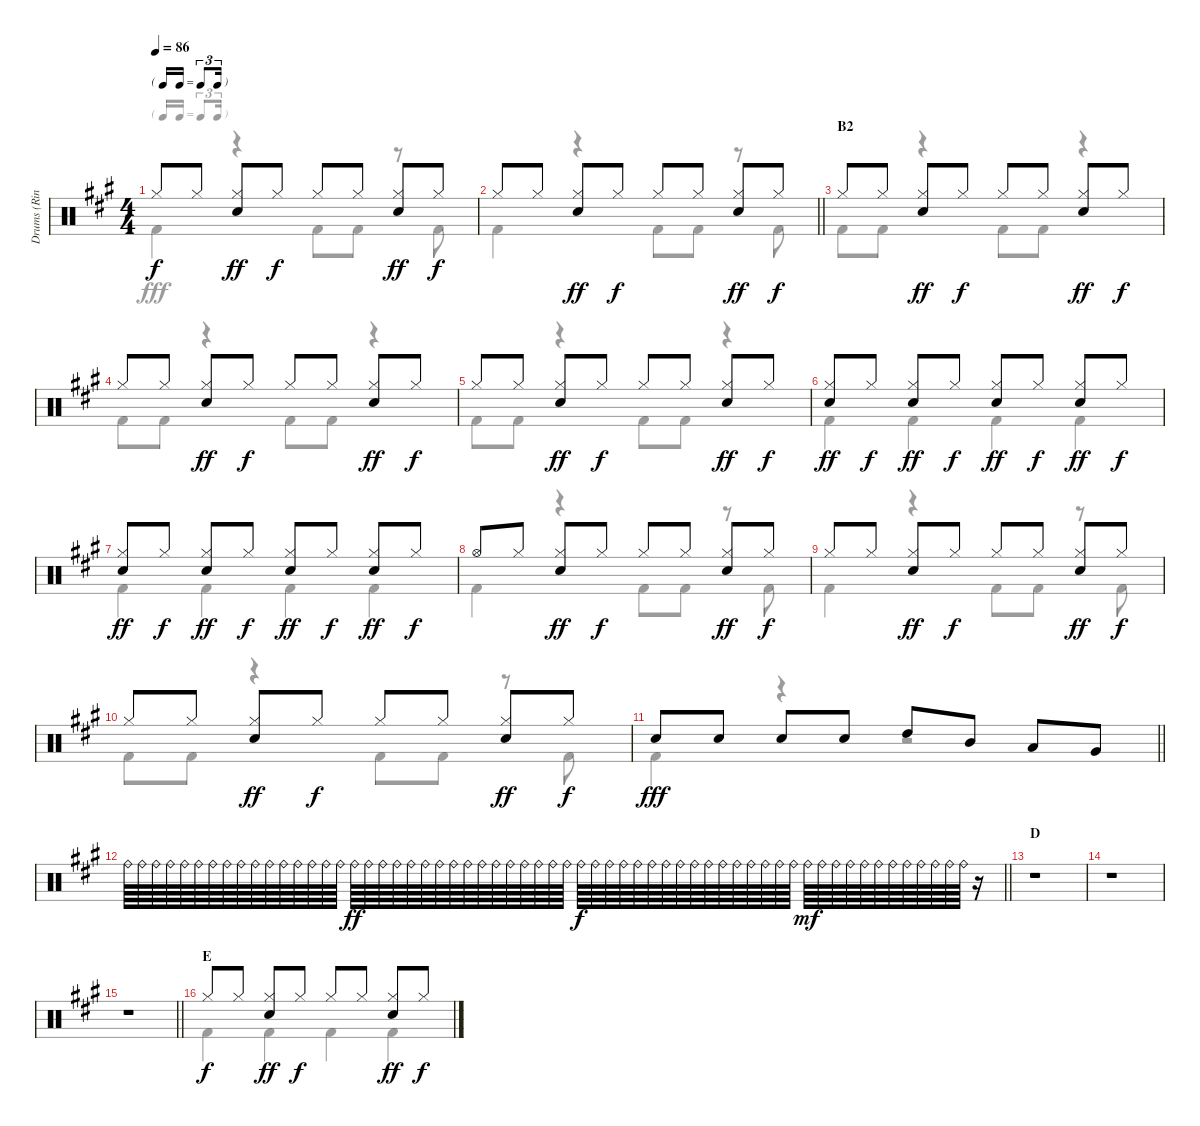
\track ("Drums (Ringo Starr)" "Drums (Rin") {instrument percussion}
\staff {score}
\articulation defaults
\voice
\ts (4 4)
\tf triplet16th
\tempo 86
\clef neutral
\ks a "Hi-Hat (closed)".8{dy f} "Hi-Hat (closed)".8
("Hi-Hat (closed)" "Snare (hit) 2").8{dy ff} "Hi-Hat (closed)".8{dy f} "Hi-Hat (closed)".8 "Hi-Hat (closed)".8 ("Hi-Hat (closed)" "Snare (hit) 2").8{dy ff} "Hi-Hat (closed)".8{dy f} |
\barLineRight lightlight "Hi-Hat (closed)".8 "Hi-Hat (closed)".8
("Hi-Hat (closed)" "Snare (hit) 2").8{dy ff} "Hi-Hat (closed)".8{dy f} "Hi-Hat (closed)".8 "Hi-Hat (closed)".8 ("Hi-Hat (closed)" "Snare (hit) 2").8{dy ff} "Hi-Hat (closed)".8{dy f} |
\section ("" "B2")
"Hi-Hat (closed)".8 "Hi-Hat (closed)".8 ("Hi-Hat (closed)" "Snare (hit) 2").8{dy ff} "Hi-Hat (closed)".8{dy f} "Hi-Hat (closed)".8 "Hi-Hat (closed)".8 ("Hi-Hat (closed)" "Snare (hit) 2").8{dy ff} "Hi-Hat (closed)".8{dy f} |
"Hi-Hat (closed)".8 "Hi-Hat (closed)".8 ("Hi-Hat (closed)" "Snare (hit) 2").8{dy ff} "Hi-Hat (closed)".8{dy f} "Hi-Hat (closed)".8 "Hi-Hat (closed)".8 ("Hi-Hat (closed)" "Snare (hit) 2").8{dy ff} "Hi-Hat (closed)".8{dy f} |
"Hi-Hat (closed)".8 "Hi-Hat (closed)".8 ("Hi-Hat (closed)" "Snare (hit) 2").8{dy ff} "Hi-Hat (closed)".8{dy f} "Hi-Hat (closed)".8 "Hi-Hat (closed)".8 ("Hi-Hat (closed)" "Snare (hit) 2").8{dy ff} "Hi-Hat (closed)".8{dy f} |
("Hi-Hat (closed)" "Snare (hit) 2").8{dy ff} "Hi-Hat (closed)".8{dy f} ("Hi-Hat (closed)" "Snare (hit) 2").8{dy ff} "Hi-Hat (closed)".8{dy f} ("Hi-Hat (closed)" "Snare (hit) 2").8{dy ff} "Hi-Hat (closed)".8{dy f} ("Hi-Hat (closed)" "Snare (hit) 2").8{dy ff} "Hi-Hat (closed)".8{dy f} |
("Hi-Hat (closed)" "Snare (hit) 2").8{dy ff} "Hi-Hat (closed)".8{dy f} ("Hi-Hat (closed)" "Snare (hit) 2").8{dy ff} "Hi-Hat (closed)".8{dy f} ("Hi-Hat (closed)" "Snare (hit) 2").8{dy ff} "Hi-Hat (closed)".8{dy f} ("Hi-Hat (closed)" "Snare (hit) 2").8{dy ff} "Hi-Hat (closed)".8{dy f} |
"Hi-Hat (open)".8 "Hi-Hat (closed)".8 ("Hi-Hat (closed)" "Snare (hit) 2").8{dy ff} "Hi-Hat (closed)".8{dy f} "Hi-Hat (closed)".8 "Hi-Hat (closed)".8 ("Hi-Hat (closed)" "Snare (hit) 2").8{dy ff} "Hi-Hat (closed)".8{dy f} |
"Hi-Hat (closed)".8 "Hi-Hat (closed)".8 ("Hi-Hat (closed)" "Snare (hit) 2").8{dy ff} "Hi-Hat (closed)".8{dy f} "Hi-Hat (closed)".8 "Hi-Hat (closed)".8 ("Hi-Hat (closed)" "Snare (hit) 2").8{dy ff} "Hi-Hat (closed)".8{dy f} |
"Hi-Hat (closed)".8 "Hi-Hat (closed)".8 ("Hi-Hat (closed)" "Snare (hit) 2").8{dy ff} "Hi-Hat (closed)".8{dy f} "Hi-Hat (closed)".8 "Hi-Hat (closed)".8 ("Hi-Hat (closed)" "Snare (hit) 2").8{dy ff} "Hi-Hat (closed)".8{dy f} |
\barLineRight lightlight "Snare (hit) 2".8{dy fff} "Snare (hit) 2".8 "Snare (hit) 2".8 "Snare (hit) 2".8 "High Tom (hit)".8 "Mid Tom (hit)".8 "Low Tom (hit)".8 "Very Low Tom (hit)".8
|
\barLineRight lightlight "Ride (bell)".64 "Ride (bell)".64 "Ride (bell)".64 "Ride (bell)".64 "Ride (bell)".64 "Ride (bell)".64 "Ride (bell)".64 "Ride (bell)".64 "Ride (bell)".64 "Ride (bell)".64 "Ride (bell)".64 "Ride (bell)".64 "Ride (bell)".64 "Ride (bell)".64 "Ride (bell)".64 "Ride (bell)".64 "Ride (bell)".64{dy ff} "Ride (bell)".64 "Ride (bell)".64 "Ride (bell)".64 "Ride (bell)".64 "Ride (bell)".64 "Ride (bell)".64 "Ride (bell)".64 "Ride (bell)".64 "Ride (bell)".64 "Ride (bell)".64 "Ride (bell)".64 "Ride (bell)".64 "Ride (bell)".64 "Ride (bell)".64 "Ride (bell)".64 "Ride (bell)".64{dy f} "Ride (bell)".64 "Ride (bell)".64 "Ride (bell)".64 "Ride (bell)".64 "Ride (bell)".64 "Ride (bell)".64 "Ride (bell)".64 "Ride (bell)".64 "Ride (bell)".64 "Ride (bell)".64 "Ride (bell)".64 "Ride (bell)".64 "Ride (bell)".64 "Ride (bell)".64 "Ride (bell)".64 "Ride (bell)".64{dy mf} "Ride (bell)".64 "Ride (bell)".64 "Ride (bell)".64 "Ride (bell)".64 "Ride (bell)".64 "Ride (bell)".64 "Ride (bell)".64 "Ride (bell)".64 "Ride (bell)".64 "Ride (bell)".64 "Ride (bell)".64
r.16 |
\section ("" "D")
r.1 |
r.1 |
\barLineRight lightlight
r.1 |
\section ("" "E")
"Hi-Hat (closed)".8{dy f} "Hi-Hat (closed)".8 ("Hi-Hat (closed)" "Snare (hit) 2").8{dy ff} "Hi-Hat (closed)".8{dy f} "Hi-Hat (closed)".8 "Hi-Hat (closed)".8 ("Hi-Hat (closed)" "Snare (hit) 2").8{dy ff} "Hi-Hat (closed)".8{dy f}
\voice
\clef neutral
\ottava regular
\simile none
\ks a "Kick (hit) 2".4{dy fff}
r.4 "Kick (hit) 2".8 "Kick (hit) 2".8 r.8 "Kick (hit) 2".8 |
\barLineRight lightlight "Kick (hit) 2".4
r.4 "Kick (hit) 2".8 "Kick (hit) 2".8 r.8 "Kick (hit) 2".8 |
"Kick (hit) 2".8 "Kick (hit) 2".8 r.4 "Kick (hit) 2".8 "Kick (hit) 2".8 r.4 |
"Kick (hit) 2".8 "Kick (hit) 2".8 r.4 "Kick (hit) 2".8 "Kick (hit) 2".8 r.4 |
"Kick (hit) 2".8 "Kick (hit) 2".8 r.4 "Kick (hit) 2".8 "Kick (hit) 2".8 r.4 |
"Kick (hit) 2".4 "Kick (hit) 2".4 "Kick (hit) 2".4 "Kick (hit) 2".4 |
"Kick (hit) 2".4 "Kick (hit) 2".4 "Kick (hit) 2".4 "Kick (hit) 2".4 |
"Kick (hit) 2".4 r.4 "Kick (hit) 2".8 "Kick (hit) 2".8 r.8 "Kick (hit) 2".8 |
"Kick (hit) 2".4 r.4 "Kick (hit) 2".8 "Kick (hit) 2".8 r.8 "Kick (hit) 2".8 |
"Kick (hit) 2".8 "Kick (hit) 2".8 r.4 "Kick (hit) 2".8 "Kick (hit) 2".8 r.8 "Kick (hit) 2".8 |
\barLineRight lightlight "Kick (hit) 2".4
r.4 r.2 |
\barLineRight lightlight
|
|
|
\barLineRight lightlight
|
"Kick (hit) 2".4 "Kick (hit) 2".4 "Kick (hit) 2".4 "Kick (hit) 2".4
